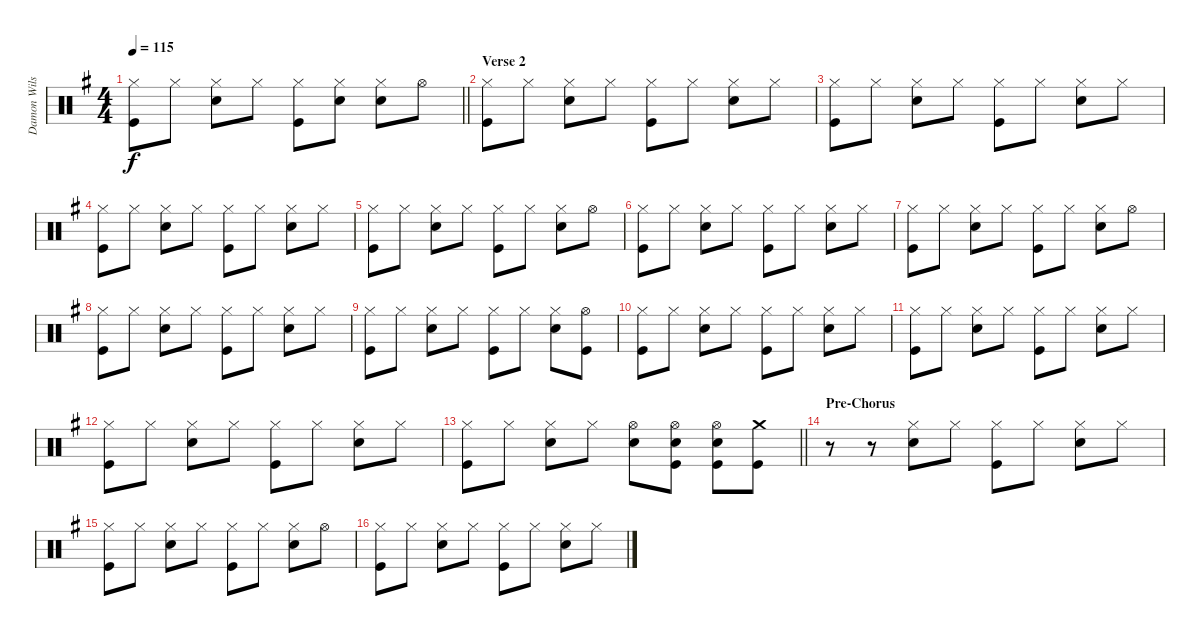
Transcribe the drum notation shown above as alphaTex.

\track ("Damon Wilson" "Damon Wils") {instrument percussion}
\staff {score}
\articulation defaults
\ts (4 4)
\tempo 115
\clef neutral
\barLineRight lightlight
\ks g
("Hi-Hat (closed)" "Kick (hit)").8{dy f} "Hi-Hat (closed)".8 ("Hi-Hat (closed)" "Electric Snare (hit)").8 "Hi-Hat (closed)".8 ("Hi-Hat (closed)" "Kick (hit)").8 ("Hi-Hat (closed)" "Electric Snare (hit)").8 ("Hi-Hat (closed)" "Electric Snare (hit)").8 "Hi-Hat (open)".8 |
\section ("" "Verse 2")
("Hi-Hat (closed)" "Kick (hit)").8 "Hi-Hat (closed)".8 ("Hi-Hat (closed)" "Electric Snare (hit)").8 "Hi-Hat (closed)".8 ("Hi-Hat (closed)" "Kick (hit)").8 "Hi-Hat (closed)".8 ("Hi-Hat (closed)" "Electric Snare (hit)").8 "Hi-Hat (closed)".8 |
("Hi-Hat (closed)" "Kick (hit)").8 "Hi-Hat (closed)".8 ("Hi-Hat (closed)" "Electric Snare (hit)").8 "Hi-Hat (closed)".8 ("Hi-Hat (closed)" "Kick (hit)").8 "Hi-Hat (closed)".8 ("Hi-Hat (closed)" "Electric Snare (hit)").8 "Hi-Hat (closed)".8 |
("Hi-Hat (closed)" "Kick (hit)").8 "Hi-Hat (closed)".8 ("Hi-Hat (closed)" "Electric Snare (hit)").8 "Hi-Hat (closed)".8 ("Hi-Hat (closed)" "Kick (hit)").8 "Hi-Hat (closed)".8 ("Hi-Hat (closed)" "Electric Snare (hit)").8 "Hi-Hat (closed)".8 |
("Hi-Hat (closed)" "Kick (hit)").8 "Hi-Hat (closed)".8 ("Hi-Hat (closed)" "Electric Snare (hit)").8 "Hi-Hat (closed)".8 ("Hi-Hat (closed)" "Kick (hit)").8 "Hi-Hat (closed)".8 ("Hi-Hat (closed)" "Electric Snare (hit)").8 "Hi-Hat (open)".8 |
("Hi-Hat (closed)" "Kick (hit)").8 "Hi-Hat (closed)".8 ("Hi-Hat (closed)" "Electric Snare (hit)").8 "Hi-Hat (closed)".8 ("Hi-Hat (closed)" "Kick (hit)").8 "Hi-Hat (closed)".8 ("Hi-Hat (closed)" "Electric Snare (hit)").8 "Hi-Hat (closed)".8 |
("Hi-Hat (closed)" "Kick (hit)").8 "Hi-Hat (closed)".8 ("Hi-Hat (closed)" "Electric Snare (hit)").8 "Hi-Hat (closed)".8 ("Hi-Hat (closed)" "Kick (hit)").8 "Hi-Hat (closed)".8 ("Hi-Hat (closed)" "Electric Snare (hit)").8 "Hi-Hat (open)".8 |
("Hi-Hat (closed)" "Kick (hit)").8 "Hi-Hat (closed)".8 ("Hi-Hat (closed)" "Electric Snare (hit)").8 "Hi-Hat (closed)".8 ("Hi-Hat (closed)" "Kick (hit)").8 "Hi-Hat (closed)".8 ("Hi-Hat (closed)" "Electric Snare (hit)").8 "Hi-Hat (closed)".8 |
("Hi-Hat (closed)" "Kick (hit)").8 "Hi-Hat (closed)".8 ("Hi-Hat (closed)" "Electric Snare (hit)").8 "Hi-Hat (closed)".8 ("Hi-Hat (closed)" "Kick (hit)").8 "Hi-Hat (closed)".8 ("Hi-Hat (closed)" "Electric Snare (hit)").8 ("Hi-Hat (open)" "Kick (hit)").8 |
("Hi-Hat (closed)" "Kick (hit)").8 "Hi-Hat (closed)".8 ("Hi-Hat (closed)" "Electric Snare (hit)").8 "Hi-Hat (closed)".8 ("Hi-Hat (closed)" "Kick (hit)").8 "Hi-Hat (closed)".8 ("Hi-Hat (closed)" "Electric Snare (hit)").8 "Hi-Hat (closed)".8 |
("Hi-Hat (closed)" "Kick (hit)").8 "Hi-Hat (closed)".8 ("Hi-Hat (closed)" "Electric Snare (hit)").8 "Hi-Hat (closed)".8 ("Hi-Hat (closed)" "Kick (hit)").8 "Hi-Hat (closed)".8 ("Hi-Hat (closed)" "Electric Snare (hit)").8 "Hi-Hat (closed)".8 |
("Hi-Hat (closed)" "Kick (hit)").8 "Hi-Hat (closed)".8 ("Hi-Hat (closed)" "Electric Snare (hit)").8 "Hi-Hat (closed)".8 ("Hi-Hat (closed)" "Kick (hit)").8 "Hi-Hat (closed)".8 ("Hi-Hat (closed)" "Electric Snare (hit)").8 "Hi-Hat (closed)".8 |
\barLineRight lightlight
("Hi-Hat (closed)" "Kick (hit)").8 "Hi-Hat (closed)".8 ("Hi-Hat (closed)" "Electric Snare (hit)").8 "Hi-Hat (closed)".8 ("Hi-Hat (open)" "Electric Snare (hit)").8 ("Hi-Hat (open)" "Electric Snare (hit)" "Kick (hit)").8 ("Hi-Hat (open)" "Electric Snare (hit)" "Kick (hit)").8 ("Crash medium (hit)" "Kick (hit)").8 |
\section ("" "Pre-Chorus")
r.8 r.8 ("Hi-Hat (closed)" "Electric Snare (hit)").8 "Hi-Hat (closed)".8 ("Hi-Hat (closed)" "Kick (hit)").8 "Hi-Hat (closed)".8 ("Hi-Hat (closed)" "Electric Snare (hit)").8 "Hi-Hat (closed)".8 |
("Hi-Hat (closed)" "Kick (hit)").8 "Hi-Hat (closed)".8 ("Hi-Hat (closed)" "Electric Snare (hit)").8 "Hi-Hat (closed)".8 ("Hi-Hat (closed)" "Kick (hit)").8 "Hi-Hat (closed)".8 ("Hi-Hat (closed)" "Electric Snare (hit)").8 "Hi-Hat (open)".8 |
("Hi-Hat (closed)" "Kick (hit)").8 "Hi-Hat (closed)".8 ("Hi-Hat (closed)" "Electric Snare (hit)").8 "Hi-Hat (closed)".8 ("Hi-Hat (closed)" "Kick (hit)").8 "Hi-Hat (closed)".8 ("Hi-Hat (closed)" "Electric Snare (hit)").8 "Hi-Hat (closed)".8
